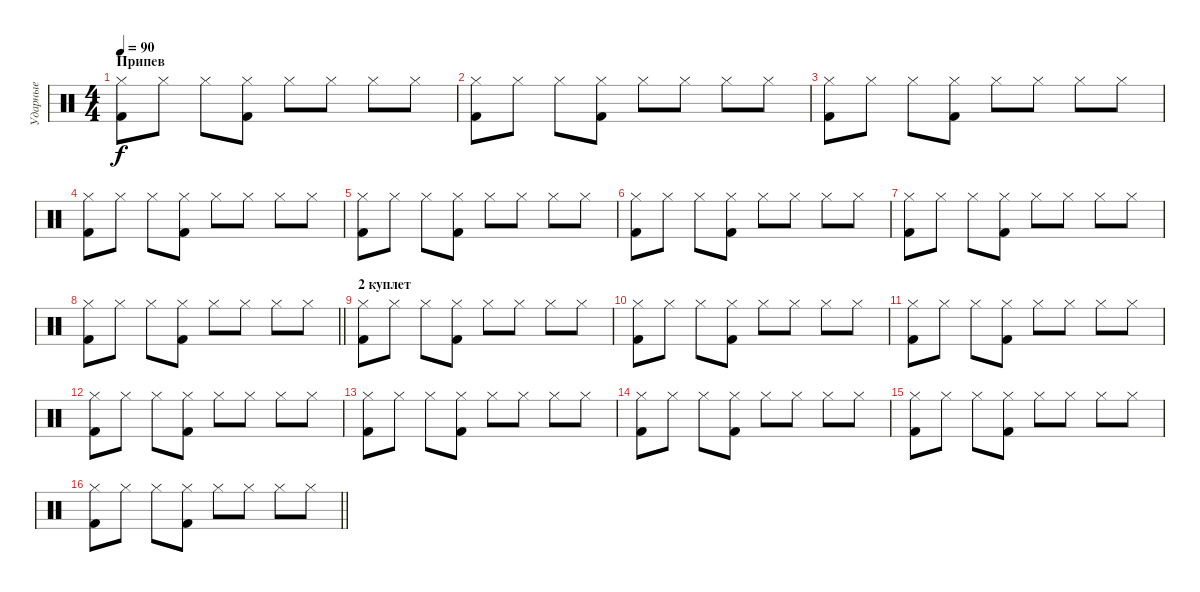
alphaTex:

\track ("Ударные" "Ударные") {instrument percussion}
\staff {score}
\articulation defaults
\ts (4 4)
\section ("" "Припев")
\tempo 90
\clef neutral
\ks c
("Hi-Hat (closed)" "Kick (hit) 2").8{dy f} "Hi-Hat (closed)".8 "Hi-Hat (closed)".8 ("Hi-Hat (closed)" "Kick (hit) 2").8 "Hi-Hat (closed)".8 "Hi-Hat (closed)".8 "Hi-Hat (closed)".8 "Hi-Hat (closed)".8 |
("Hi-Hat (closed)" "Kick (hit) 2").8 "Hi-Hat (closed)".8 "Hi-Hat (closed)".8 ("Hi-Hat (closed)" "Kick (hit) 2").8 "Hi-Hat (closed)".8 "Hi-Hat (closed)".8 "Hi-Hat (closed)".8 "Hi-Hat (closed)".8 |
("Hi-Hat (closed)" "Kick (hit) 2").8 "Hi-Hat (closed)".8 "Hi-Hat (closed)".8 ("Hi-Hat (closed)" "Kick (hit) 2").8 "Hi-Hat (closed)".8 "Hi-Hat (closed)".8 "Hi-Hat (closed)".8 "Hi-Hat (closed)".8 |
("Hi-Hat (closed)" "Kick (hit) 2").8 "Hi-Hat (closed)".8 "Hi-Hat (closed)".8 ("Hi-Hat (closed)" "Kick (hit) 2").8 "Hi-Hat (closed)".8 "Hi-Hat (closed)".8 "Hi-Hat (closed)".8 "Hi-Hat (closed)".8 |
("Hi-Hat (closed)" "Kick (hit) 2").8 "Hi-Hat (closed)".8 "Hi-Hat (closed)".8 ("Hi-Hat (closed)" "Kick (hit) 2").8 "Hi-Hat (closed)".8 "Hi-Hat (closed)".8 "Hi-Hat (closed)".8 "Hi-Hat (closed)".8 |
("Hi-Hat (closed)" "Kick (hit) 2").8 "Hi-Hat (closed)".8 "Hi-Hat (closed)".8 ("Hi-Hat (closed)" "Kick (hit) 2").8 "Hi-Hat (closed)".8 "Hi-Hat (closed)".8 "Hi-Hat (closed)".8 "Hi-Hat (closed)".8 |
("Hi-Hat (closed)" "Kick (hit) 2").8 "Hi-Hat (closed)".8 "Hi-Hat (closed)".8 ("Hi-Hat (closed)" "Kick (hit) 2").8 "Hi-Hat (closed)".8 "Hi-Hat (closed)".8 "Hi-Hat (closed)".8 "Hi-Hat (closed)".8 |
\barLineRight lightlight
("Hi-Hat (closed)" "Kick (hit) 2").8 "Hi-Hat (closed)".8 "Hi-Hat (closed)".8 ("Hi-Hat (closed)" "Kick (hit) 2").8 "Hi-Hat (closed)".8 "Hi-Hat (closed)".8 "Hi-Hat (closed)".8 "Hi-Hat (closed)".8 |
\section ("" "2 куплет")
("Hi-Hat (closed)" "Kick (hit) 2").8 "Hi-Hat (closed)".8 "Hi-Hat (closed)".8 ("Hi-Hat (closed)" "Kick (hit) 2").8 "Hi-Hat (closed)".8 "Hi-Hat (closed)".8 "Hi-Hat (closed)".8 "Hi-Hat (closed)".8 |
("Hi-Hat (closed)" "Kick (hit) 2").8 "Hi-Hat (closed)".8 "Hi-Hat (closed)".8 ("Hi-Hat (closed)" "Kick (hit) 2").8 "Hi-Hat (closed)".8 "Hi-Hat (closed)".8 "Hi-Hat (closed)".8 "Hi-Hat (closed)".8 |
("Hi-Hat (closed)" "Kick (hit) 2").8 "Hi-Hat (closed)".8 "Hi-Hat (closed)".8 ("Hi-Hat (closed)" "Kick (hit) 2").8 "Hi-Hat (closed)".8 "Hi-Hat (closed)".8 "Hi-Hat (closed)".8 "Hi-Hat (closed)".8 |
("Hi-Hat (closed)" "Kick (hit) 2").8 "Hi-Hat (closed)".8 "Hi-Hat (closed)".8 ("Hi-Hat (closed)" "Kick (hit) 2").8 "Hi-Hat (closed)".8 "Hi-Hat (closed)".8 "Hi-Hat (closed)".8 "Hi-Hat (closed)".8 |
("Hi-Hat (closed)" "Kick (hit) 2").8 "Hi-Hat (closed)".8 "Hi-Hat (closed)".8 ("Hi-Hat (closed)" "Kick (hit) 2").8 "Hi-Hat (closed)".8 "Hi-Hat (closed)".8 "Hi-Hat (closed)".8 "Hi-Hat (closed)".8 |
("Hi-Hat (closed)" "Kick (hit) 2").8 "Hi-Hat (closed)".8 "Hi-Hat (closed)".8 ("Hi-Hat (closed)" "Kick (hit) 2").8 "Hi-Hat (closed)".8 "Hi-Hat (closed)".8 "Hi-Hat (closed)".8 "Hi-Hat (closed)".8 |
("Hi-Hat (closed)" "Kick (hit) 2").8 "Hi-Hat (closed)".8 "Hi-Hat (closed)".8 ("Hi-Hat (closed)" "Kick (hit) 2").8 "Hi-Hat (closed)".8 "Hi-Hat (closed)".8 "Hi-Hat (closed)".8 "Hi-Hat (closed)".8 |
\barLineRight lightlight
("Hi-Hat (closed)" "Kick (hit) 2").8 "Hi-Hat (closed)".8 "Hi-Hat (closed)".8 ("Hi-Hat (closed)" "Kick (hit) 2").8 "Hi-Hat (closed)".8 "Hi-Hat (closed)".8 "Hi-Hat (closed)".8 "Hi-Hat (closed)".8
